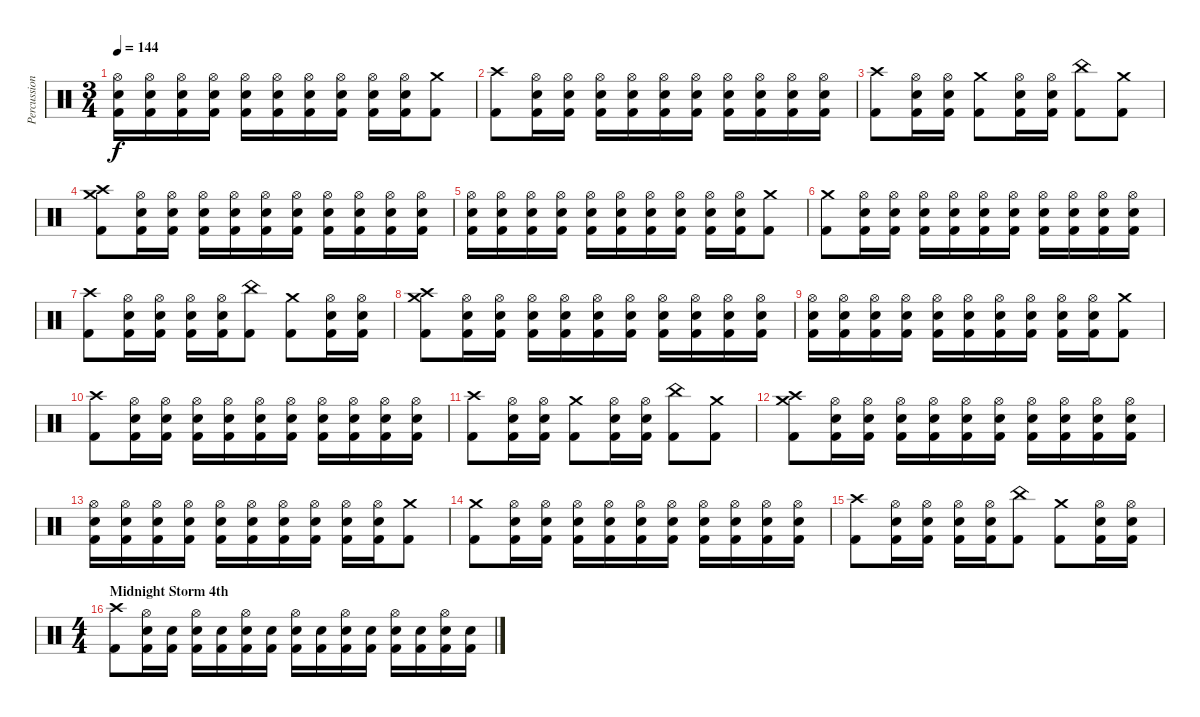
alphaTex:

\track ("Percussion" "Percussion") {instrument percussion}
\staff {score}
\articulation defaults
\ts (3 4)
\tempo 144
\clef neutral
\ks c
("Hi-Hat (open)" "Electric Snare (hit)" "Kick (hit) 2").16{dy f} ("Hi-Hat (open)" "Electric Snare (hit)" "Kick (hit) 2").16 ("Hi-Hat (open)" "Electric Snare (hit)" "Kick (hit) 2").16 ("Hi-Hat (open)" "Electric Snare (hit)" "Kick (hit) 2").16 ("Hi-Hat (open)" "Electric Snare (hit)" "Kick (hit) 2").16 ("Hi-Hat (open)" "Electric Snare (hit)" "Kick (hit) 2").16 ("Hi-Hat (open)" "Electric Snare (hit)" "Kick (hit) 2").16 ("Hi-Hat (open)" "Electric Snare (hit)" "Kick (hit) 2").16 ("Hi-Hat (open)" "Electric Snare (hit)" "Kick (hit) 2").16 ("Hi-Hat (open)" "Electric Snare (hit)" "Kick (hit) 2").16 ("Crash medium (hit)" "Kick (hit) 2").8 |
("Crash high (hit)" "Kick (hit) 2").8 ("Hi-Hat (open)" "Electric Snare (hit)" "Kick (hit) 2").16 ("Hi-Hat (open)" "Electric Snare (hit)" "Kick (hit) 2").16 ("Hi-Hat (open)" "Electric Snare (hit)" "Kick (hit) 2").16 ("Hi-Hat (open)" "Electric Snare (hit)" "Kick (hit) 2").16 ("Hi-Hat (open)" "Electric Snare (hit)" "Kick (hit) 2").16 ("Hi-Hat (open)" "Electric Snare (hit)" "Kick (hit) 2").16 ("Hi-Hat (open)" "Electric Snare (hit)" "Kick (hit) 2").16 ("Hi-Hat (open)" "Electric Snare (hit)" "Kick (hit) 2").16 ("Hi-Hat (open)" "Electric Snare (hit)" "Kick (hit) 2").16 ("Hi-Hat (open)" "Electric Snare (hit)" "Kick (hit) 2").16 |
("Crash high (hit)" "Kick (hit) 2").8 ("Hi-Hat (open)" "Electric Snare (hit)" "Kick (hit) 2").16 ("Hi-Hat (open)" "Electric Snare (hit)" "Kick (hit) 2").16 ("Crash medium (hit)" "Kick (hit) 2").8 ("Hi-Hat (open)" "Electric Snare (hit)" "Kick (hit) 2").16 ("Hi-Hat (open)" "Electric Snare (hit)" "Kick (hit) 2").16 ("China (hit)" "Kick (hit) 2").8 ("Crash medium (hit)" "Kick (hit) 2").8 |
("Crash high (hit)" "Crash medium (hit)" "Kick (hit) 2").8 ("Hi-Hat (open)" "Electric Snare (hit)" "Kick (hit) 2").16 ("Hi-Hat (open)" "Electric Snare (hit)" "Kick (hit) 2").16 ("Hi-Hat (open)" "Electric Snare (hit)" "Kick (hit) 2").16 ("Hi-Hat (open)" "Electric Snare (hit)" "Kick (hit) 2").16 ("Hi-Hat (open)" "Electric Snare (hit)" "Kick (hit) 2").16 ("Hi-Hat (open)" "Electric Snare (hit)" "Kick (hit) 2").16 ("Hi-Hat (open)" "Electric Snare (hit)" "Kick (hit) 2").16 ("Hi-Hat (open)" "Electric Snare (hit)" "Kick (hit) 2").16 ("Hi-Hat (open)" "Electric Snare (hit)" "Kick (hit) 2").16 ("Hi-Hat (open)" "Electric Snare (hit)" "Kick (hit) 2").16 |
("Hi-Hat (open)" "Electric Snare (hit)" "Kick (hit) 2").16 ("Hi-Hat (open)" "Electric Snare (hit)" "Kick (hit) 2").16 ("Hi-Hat (open)" "Electric Snare (hit)" "Kick (hit) 2").16 ("Hi-Hat (open)" "Electric Snare (hit)" "Kick (hit) 2").16 ("Hi-Hat (open)" "Electric Snare (hit)" "Kick (hit) 2").16 ("Hi-Hat (open)" "Electric Snare (hit)" "Kick (hit) 2").16 ("Hi-Hat (open)" "Electric Snare (hit)" "Kick (hit) 2").16 ("Hi-Hat (open)" "Electric Snare (hit)" "Kick (hit) 2").16 ("Hi-Hat (open)" "Electric Snare (hit)" "Kick (hit) 2").16 ("Hi-Hat (open)" "Electric Snare (hit)" "Kick (hit) 2").16 ("Crash medium (hit)" "Kick (hit) 2").8 |
("Crash medium (hit)" "Kick (hit) 2").8 ("Hi-Hat (open)" "Electric Snare (hit)" "Kick (hit) 2").16 ("Hi-Hat (open)" "Electric Snare (hit)" "Kick (hit) 2").16 ("Hi-Hat (open)" "Electric Snare (hit)" "Kick (hit) 2").16 ("Hi-Hat (open)" "Electric Snare (hit)" "Kick (hit) 2").16 ("Hi-Hat (open)" "Electric Snare (hit)" "Kick (hit) 2").16 ("Hi-Hat (open)" "Electric Snare (hit)" "Kick (hit) 2").16 ("Hi-Hat (open)" "Electric Snare (hit)" "Kick (hit) 2").16 ("Hi-Hat (open)" "Electric Snare (hit)" "Kick (hit) 2").16 ("Hi-Hat (open)" "Electric Snare (hit)" "Kick (hit) 2").16 ("Hi-Hat (open)" "Electric Snare (hit)" "Kick (hit) 2").16 |
("Crash high (hit)" "Kick (hit) 2").8 ("Hi-Hat (open)" "Electric Snare (hit)" "Kick (hit) 2").16 ("Hi-Hat (open)" "Electric Snare (hit)" "Kick (hit) 2").16 ("Hi-Hat (open)" "Electric Snare (hit)" "Kick (hit) 2").16 ("Hi-Hat (open)" "Electric Snare (hit)" "Kick (hit) 2").16 ("China (hit)" "Kick (hit) 2").8 ("Crash medium (hit)" "Kick (hit) 2").8 ("Hi-Hat (open)" "Electric Snare (hit)" "Kick (hit) 2").16 ("Hi-Hat (open)" "Electric Snare (hit)" "Kick (hit) 2").16 |
("Crash high (hit)" "Crash medium (hit)" "Kick (hit) 2").8 ("Hi-Hat (open)" "Electric Snare (hit)" "Kick (hit) 2").16 ("Hi-Hat (open)" "Electric Snare (hit)" "Kick (hit) 2").16 ("Hi-Hat (open)" "Electric Snare (hit)" "Kick (hit) 2").16 ("Hi-Hat (open)" "Electric Snare (hit)" "Kick (hit) 2").16 ("Hi-Hat (open)" "Electric Snare (hit)" "Kick (hit) 2").16 ("Hi-Hat (open)" "Electric Snare (hit)" "Kick (hit) 2").16 ("Hi-Hat (open)" "Electric Snare (hit)" "Kick (hit) 2").16 ("Hi-Hat (open)" "Electric Snare (hit)" "Kick (hit) 2").16 ("Hi-Hat (open)" "Electric Snare (hit)" "Kick (hit) 2").16 ("Hi-Hat (open)" "Electric Snare (hit)" "Kick (hit) 2").16 |
("Hi-Hat (open)" "Electric Snare (hit)" "Kick (hit) 2").16 ("Hi-Hat (open)" "Electric Snare (hit)" "Kick (hit) 2").16 ("Hi-Hat (open)" "Electric Snare (hit)" "Kick (hit) 2").16 ("Hi-Hat (open)" "Electric Snare (hit)" "Kick (hit) 2").16 ("Hi-Hat (open)" "Electric Snare (hit)" "Kick (hit) 2").16 ("Hi-Hat (open)" "Electric Snare (hit)" "Kick (hit) 2").16 ("Hi-Hat (open)" "Electric Snare (hit)" "Kick (hit) 2").16 ("Hi-Hat (open)" "Electric Snare (hit)" "Kick (hit) 2").16 ("Hi-Hat (open)" "Electric Snare (hit)" "Kick (hit) 2").16 ("Hi-Hat (open)" "Electric Snare (hit)" "Kick (hit) 2").16 ("Crash medium (hit)" "Kick (hit) 2").8 |
("Crash high (hit)" "Kick (hit) 2").8 ("Hi-Hat (open)" "Electric Snare (hit)" "Kick (hit) 2").16 ("Hi-Hat (open)" "Electric Snare (hit)" "Kick (hit) 2").16 ("Hi-Hat (open)" "Electric Snare (hit)" "Kick (hit) 2").16 ("Hi-Hat (open)" "Electric Snare (hit)" "Kick (hit) 2").16 ("Hi-Hat (open)" "Electric Snare (hit)" "Kick (hit) 2").16 ("Hi-Hat (open)" "Electric Snare (hit)" "Kick (hit) 2").16 ("Hi-Hat (open)" "Electric Snare (hit)" "Kick (hit) 2").16 ("Hi-Hat (open)" "Electric Snare (hit)" "Kick (hit) 2").16 ("Hi-Hat (open)" "Electric Snare (hit)" "Kick (hit) 2").16 ("Hi-Hat (open)" "Electric Snare (hit)" "Kick (hit) 2").16 |
("Crash high (hit)" "Kick (hit) 2").8 ("Hi-Hat (open)" "Electric Snare (hit)" "Kick (hit) 2").16 ("Hi-Hat (open)" "Electric Snare (hit)" "Kick (hit) 2").16 ("Crash medium (hit)" "Kick (hit) 2").8 ("Hi-Hat (open)" "Electric Snare (hit)" "Kick (hit) 2").16 ("Hi-Hat (open)" "Electric Snare (hit)" "Kick (hit) 2").16 ("China (hit)" "Kick (hit) 2").8 ("Crash medium (hit)" "Kick (hit) 2").8 |
("Crash high (hit)" "Crash medium (hit)" "Kick (hit) 2").8 ("Hi-Hat (open)" "Electric Snare (hit)" "Kick (hit) 2").16 ("Hi-Hat (open)" "Electric Snare (hit)" "Kick (hit) 2").16 ("Hi-Hat (open)" "Electric Snare (hit)" "Kick (hit) 2").16 ("Hi-Hat (open)" "Electric Snare (hit)" "Kick (hit) 2").16 ("Hi-Hat (open)" "Electric Snare (hit)" "Kick (hit) 2").16 ("Hi-Hat (open)" "Electric Snare (hit)" "Kick (hit) 2").16 ("Hi-Hat (open)" "Electric Snare (hit)" "Kick (hit) 2").16 ("Hi-Hat (open)" "Electric Snare (hit)" "Kick (hit) 2").16 ("Hi-Hat (open)" "Electric Snare (hit)" "Kick (hit) 2").16 ("Hi-Hat (open)" "Electric Snare (hit)" "Kick (hit) 2").16 |
("Hi-Hat (open)" "Electric Snare (hit)" "Kick (hit) 2").16 ("Hi-Hat (open)" "Electric Snare (hit)" "Kick (hit) 2").16 ("Hi-Hat (open)" "Electric Snare (hit)" "Kick (hit) 2").16 ("Hi-Hat (open)" "Electric Snare (hit)" "Kick (hit) 2").16 ("Hi-Hat (open)" "Electric Snare (hit)" "Kick (hit) 2").16 ("Hi-Hat (open)" "Electric Snare (hit)" "Kick (hit) 2").16 ("Hi-Hat (open)" "Electric Snare (hit)" "Kick (hit) 2").16 ("Hi-Hat (open)" "Electric Snare (hit)" "Kick (hit) 2").16 ("Hi-Hat (open)" "Electric Snare (hit)" "Kick (hit) 2").16 ("Hi-Hat (open)" "Electric Snare (hit)" "Kick (hit) 2").16 ("Crash medium (hit)" "Kick (hit) 2").8 |
("Crash medium (hit)" "Kick (hit) 2").8 ("Hi-Hat (open)" "Electric Snare (hit)" "Kick (hit) 2").16 ("Hi-Hat (open)" "Electric Snare (hit)" "Kick (hit) 2").16 ("Hi-Hat (open)" "Electric Snare (hit)" "Kick (hit) 2").16 ("Hi-Hat (open)" "Electric Snare (hit)" "Kick (hit) 2").16 ("Hi-Hat (open)" "Electric Snare (hit)" "Kick (hit) 2").16 ("Hi-Hat (open)" "Electric Snare (hit)" "Kick (hit) 2").16 ("Hi-Hat (open)" "Electric Snare (hit)" "Kick (hit) 2").16 ("Hi-Hat (open)" "Electric Snare (hit)" "Kick (hit) 2").16 ("Hi-Hat (open)" "Electric Snare (hit)" "Kick (hit) 2").16 ("Hi-Hat (open)" "Electric Snare (hit)" "Kick (hit) 2").16 |
("Crash high (hit)" "Kick (hit) 2").8 ("Hi-Hat (open)" "Electric Snare (hit)" "Kick (hit) 2").16 ("Hi-Hat (open)" "Electric Snare (hit)" "Kick (hit) 2").16 ("Hi-Hat (open)" "Electric Snare (hit)" "Kick (hit) 2").16 ("Hi-Hat (open)" "Electric Snare (hit)" "Kick (hit) 2").16 ("China (hit)" "Kick (hit) 2").8 ("Crash medium (hit)" "Kick (hit) 2").8 ("Hi-Hat (open)" "Electric Snare (hit)" "Kick (hit) 2").16 ("Hi-Hat (open)" "Electric Snare (hit)" "Kick (hit) 2").16 |
\ts (4 4)
\section ("" "Midnight Storm 4th")
("Crash high (hit)" "Kick (hit) 2").8 ("Hi-Hat (open)" "Electric Snare (hit)" "Kick (hit) 2").16 ("Electric Snare (hit)" "Kick (hit) 2").16 ("Hi-Hat (open)" "Electric Snare (hit)" "Kick (hit) 2").16 ("Electric Snare (hit)" "Kick (hit) 2").16 ("Hi-Hat (open)" "Electric Snare (hit)" "Kick (hit) 2").16 ("Electric Snare (hit)" "Kick (hit) 2").16 ("Hi-Hat (open)" "Electric Snare (hit)" "Kick (hit) 2").16 ("Electric Snare (hit)" "Kick (hit) 2").16 ("Hi-Hat (open)" "Electric Snare (hit)" "Kick (hit) 2").16 ("Electric Snare (hit)" "Kick (hit) 2").16 ("Hi-Hat (open)" "Electric Snare (hit)" "Kick (hit) 2").16 ("Electric Snare (hit)" "Kick (hit) 2").16 ("Hi-Hat (open)" "Electric Snare (hit)" "Kick (hit) 2").16 ("Electric Snare (hit)" "Kick (hit) 2").16
